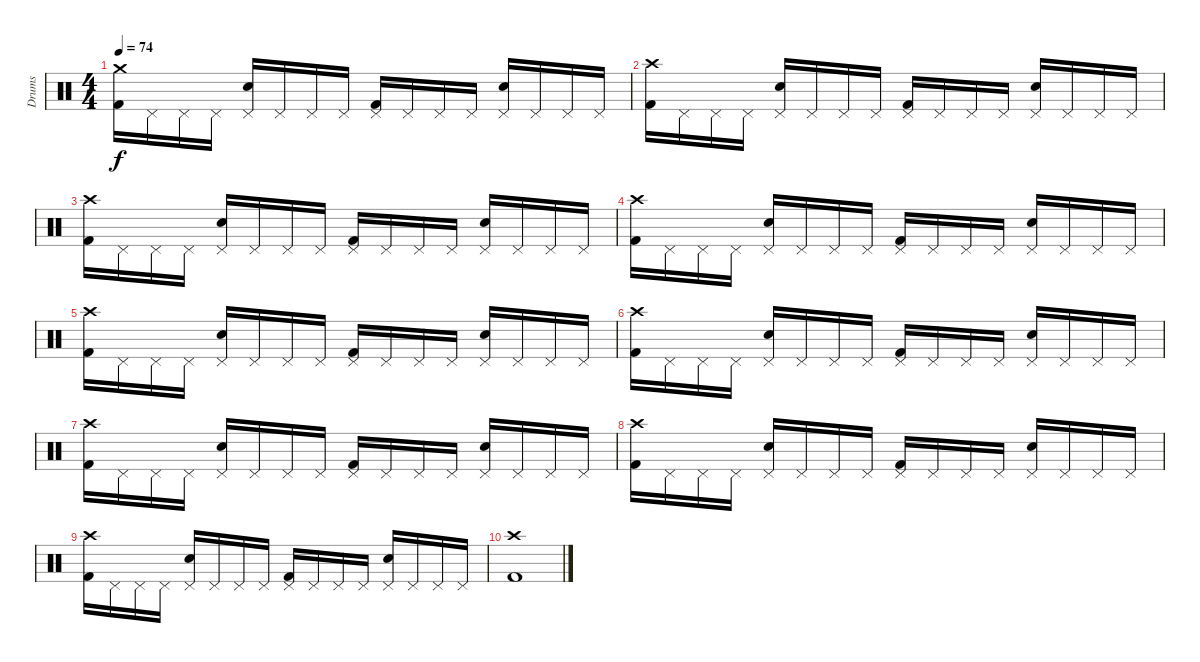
\track ("Drums" "Drums") {instrument percussion}
\staff {score}
\articulation defaults
\ts (4 4)
\tempo 74
\clef neutral
\ks c
("Crash medium (hit)" "Kick (hit) 2").16{dy f} "Pedal Hi-Hat (hit)".16 "Pedal Hi-Hat (hit)".16 "Pedal Hi-Hat (hit)".16 ("Pedal Hi-Hat (hit)" "Electric Snare (hit)").16 "Pedal Hi-Hat (hit)".16 "Pedal Hi-Hat (hit)".16 "Pedal Hi-Hat (hit)".16 ("Pedal Hi-Hat (hit)" "Kick (hit) 2").16 "Pedal Hi-Hat (hit)".16 "Pedal Hi-Hat (hit)".16 "Pedal Hi-Hat (hit)".16 ("Pedal Hi-Hat (hit)" "Electric Snare (hit)").16 "Pedal Hi-Hat (hit)".16 "Pedal Hi-Hat (hit)".16 "Pedal Hi-Hat (hit)".16 |
("Crash high (hit)" "Kick (hit) 2").16 "Pedal Hi-Hat (hit)".16 "Pedal Hi-Hat (hit)".16 "Pedal Hi-Hat (hit)".16 ("Pedal Hi-Hat (hit)" "Electric Snare (hit)").16 "Pedal Hi-Hat (hit)".16 "Pedal Hi-Hat (hit)".16 "Pedal Hi-Hat (hit)".16 ("Pedal Hi-Hat (hit)" "Kick (hit) 2").16 "Pedal Hi-Hat (hit)".16 "Pedal Hi-Hat (hit)".16 "Pedal Hi-Hat (hit)".16 ("Pedal Hi-Hat (hit)" "Electric Snare (hit)").16 "Pedal Hi-Hat (hit)".16 "Pedal Hi-Hat (hit)".16 "Pedal Hi-Hat (hit)".16 |
("Crash high (hit)" "Kick (hit) 2").16 "Pedal Hi-Hat (hit)".16 "Pedal Hi-Hat (hit)".16 "Pedal Hi-Hat (hit)".16 ("Pedal Hi-Hat (hit)" "Electric Snare (hit)").16 "Pedal Hi-Hat (hit)".16 "Pedal Hi-Hat (hit)".16 "Pedal Hi-Hat (hit)".16 ("Pedal Hi-Hat (hit)" "Kick (hit) 2").16 "Pedal Hi-Hat (hit)".16 "Pedal Hi-Hat (hit)".16 "Pedal Hi-Hat (hit)".16 ("Pedal Hi-Hat (hit)" "Electric Snare (hit)").16 "Pedal Hi-Hat (hit)".16 "Pedal Hi-Hat (hit)".16 "Pedal Hi-Hat (hit)".16 |
("Crash high (hit)" "Kick (hit) 2").16 "Pedal Hi-Hat (hit)".16 "Pedal Hi-Hat (hit)".16 "Pedal Hi-Hat (hit)".16 ("Pedal Hi-Hat (hit)" "Electric Snare (hit)").16 "Pedal Hi-Hat (hit)".16 "Pedal Hi-Hat (hit)".16 "Pedal Hi-Hat (hit)".16 ("Pedal Hi-Hat (hit)" "Kick (hit) 2").16 "Pedal Hi-Hat (hit)".16 "Pedal Hi-Hat (hit)".16 "Pedal Hi-Hat (hit)".16 ("Pedal Hi-Hat (hit)" "Electric Snare (hit)").16 "Pedal Hi-Hat (hit)".16 "Pedal Hi-Hat (hit)".16 "Pedal Hi-Hat (hit)".16 |
("Crash high (hit)" "Kick (hit) 2").16 "Pedal Hi-Hat (hit)".16 "Pedal Hi-Hat (hit)".16 "Pedal Hi-Hat (hit)".16 ("Pedal Hi-Hat (hit)" "Electric Snare (hit)").16 "Pedal Hi-Hat (hit)".16 "Pedal Hi-Hat (hit)".16 "Pedal Hi-Hat (hit)".16 ("Pedal Hi-Hat (hit)" "Kick (hit) 2").16 "Pedal Hi-Hat (hit)".16 "Pedal Hi-Hat (hit)".16 "Pedal Hi-Hat (hit)".16 ("Pedal Hi-Hat (hit)" "Electric Snare (hit)").16 "Pedal Hi-Hat (hit)".16 "Pedal Hi-Hat (hit)".16 "Pedal Hi-Hat (hit)".16 |
("Crash high (hit)" "Kick (hit) 2").16 "Pedal Hi-Hat (hit)".16 "Pedal Hi-Hat (hit)".16 "Pedal Hi-Hat (hit)".16 ("Pedal Hi-Hat (hit)" "Electric Snare (hit)").16 "Pedal Hi-Hat (hit)".16 "Pedal Hi-Hat (hit)".16 "Pedal Hi-Hat (hit)".16 ("Pedal Hi-Hat (hit)" "Kick (hit) 2").16 "Pedal Hi-Hat (hit)".16 "Pedal Hi-Hat (hit)".16 "Pedal Hi-Hat (hit)".16 ("Pedal Hi-Hat (hit)" "Electric Snare (hit)").16 "Pedal Hi-Hat (hit)".16 "Pedal Hi-Hat (hit)".16 "Pedal Hi-Hat (hit)".16 |
("Crash high (hit)" "Kick (hit) 2").16 "Pedal Hi-Hat (hit)".16 "Pedal Hi-Hat (hit)".16 "Pedal Hi-Hat (hit)".16 ("Pedal Hi-Hat (hit)" "Electric Snare (hit)").16 "Pedal Hi-Hat (hit)".16 "Pedal Hi-Hat (hit)".16 "Pedal Hi-Hat (hit)".16 ("Pedal Hi-Hat (hit)" "Kick (hit) 2").16 "Pedal Hi-Hat (hit)".16 "Pedal Hi-Hat (hit)".16 "Pedal Hi-Hat (hit)".16 ("Pedal Hi-Hat (hit)" "Electric Snare (hit)").16 "Pedal Hi-Hat (hit)".16 "Pedal Hi-Hat (hit)".16 "Pedal Hi-Hat (hit)".16 |
("Crash high (hit)" "Kick (hit) 2").16 "Pedal Hi-Hat (hit)".16 "Pedal Hi-Hat (hit)".16 "Pedal Hi-Hat (hit)".16 ("Pedal Hi-Hat (hit)" "Electric Snare (hit)").16 "Pedal Hi-Hat (hit)".16 "Pedal Hi-Hat (hit)".16 "Pedal Hi-Hat (hit)".16 ("Pedal Hi-Hat (hit)" "Kick (hit) 2").16 "Pedal Hi-Hat (hit)".16 "Pedal Hi-Hat (hit)".16 "Pedal Hi-Hat (hit)".16 ("Pedal Hi-Hat (hit)" "Electric Snare (hit)").16 "Pedal Hi-Hat (hit)".16 "Pedal Hi-Hat (hit)".16 "Pedal Hi-Hat (hit)".16 |
("Crash high (hit)" "Kick (hit) 2").16 "Pedal Hi-Hat (hit)".16 "Pedal Hi-Hat (hit)".16 "Pedal Hi-Hat (hit)".16 ("Pedal Hi-Hat (hit)" "Electric Snare (hit)").16 "Pedal Hi-Hat (hit)".16 "Pedal Hi-Hat (hit)".16 "Pedal Hi-Hat (hit)".16 ("Pedal Hi-Hat (hit)" "Kick (hit) 2").16 "Pedal Hi-Hat (hit)".16 "Pedal Hi-Hat (hit)".16 "Pedal Hi-Hat (hit)".16 ("Pedal Hi-Hat (hit)" "Electric Snare (hit)").16 "Pedal Hi-Hat (hit)".16 "Pedal Hi-Hat (hit)".16 "Pedal Hi-Hat (hit)".16 |
("Crash high (hit)" "Kick (hit) 2").1
